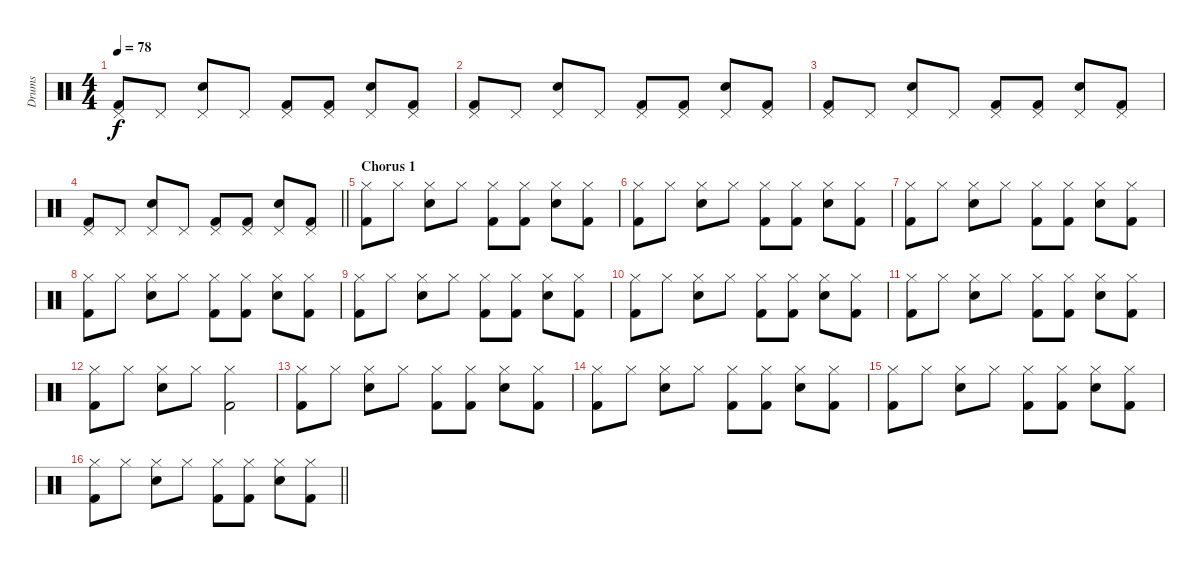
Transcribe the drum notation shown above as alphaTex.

\track ("Drums" "Drums") {instrument percussion}
\staff {score}
\articulation defaults
\ts (4 4)
\tempo 78
\clef neutral
\ks c
("Pedal Hi-Hat (hit)" "Kick (hit) 2").8{dy f} "Pedal Hi-Hat (hit)".8 ("Pedal Hi-Hat (hit)" "Snare (hit) 2").8 "Pedal Hi-Hat (hit)".8 ("Pedal Hi-Hat (hit)" "Kick (hit) 2").8 ("Pedal Hi-Hat (hit)" "Kick (hit) 2").8 ("Pedal Hi-Hat (hit)" "Snare (hit) 2").8 ("Pedal Hi-Hat (hit)" "Kick (hit) 2").8 |
("Pedal Hi-Hat (hit)" "Kick (hit) 2").8 "Pedal Hi-Hat (hit)".8 ("Pedal Hi-Hat (hit)" "Snare (hit) 2").8 "Pedal Hi-Hat (hit)".8 ("Pedal Hi-Hat (hit)" "Kick (hit) 2").8 ("Pedal Hi-Hat (hit)" "Kick (hit) 2").8 ("Pedal Hi-Hat (hit)" "Snare (hit) 2").8 ("Pedal Hi-Hat (hit)" "Kick (hit) 2").8 |
("Pedal Hi-Hat (hit)" "Kick (hit) 2").8 "Pedal Hi-Hat (hit)".8 ("Pedal Hi-Hat (hit)" "Snare (hit) 2").8 "Pedal Hi-Hat (hit)".8 ("Pedal Hi-Hat (hit)" "Kick (hit) 2").8 ("Pedal Hi-Hat (hit)" "Kick (hit) 2").8 ("Pedal Hi-Hat (hit)" "Snare (hit) 2").8 ("Pedal Hi-Hat (hit)" "Kick (hit) 2").8 |
\barLineRight lightlight
("Pedal Hi-Hat (hit)" "Kick (hit) 2").8 "Pedal Hi-Hat (hit)".8 ("Pedal Hi-Hat (hit)" "Snare (hit) 2").8 "Pedal Hi-Hat (hit)".8 ("Pedal Hi-Hat (hit)" "Kick (hit) 2").8 ("Pedal Hi-Hat (hit)" "Kick (hit) 2").8 ("Pedal Hi-Hat (hit)" "Snare (hit) 2").8 ("Pedal Hi-Hat (hit)" "Kick (hit) 2").8 |
\section ("" "Chorus 1")
("Hi-Hat (closed)" "Kick (hit) 2").8 "Hi-Hat (closed)".8 ("Hi-Hat (closed)" "Snare (hit) 2").8 "Hi-Hat (closed)".8 ("Hi-Hat (closed)" "Kick (hit) 2").8 ("Hi-Hat (closed)" "Kick (hit) 2").8 ("Hi-Hat (closed)" "Snare (hit) 2").8 ("Hi-Hat (closed)" "Kick (hit) 2").8 |
("Hi-Hat (closed)" "Kick (hit) 2").8 "Hi-Hat (closed)".8 ("Hi-Hat (closed)" "Snare (hit) 2").8 "Hi-Hat (closed)".8 ("Hi-Hat (closed)" "Kick (hit) 2").8 ("Hi-Hat (closed)" "Kick (hit) 2").8 ("Hi-Hat (closed)" "Snare (hit) 2").8 ("Hi-Hat (closed)" "Kick (hit) 2").8 |
("Hi-Hat (closed)" "Kick (hit) 2").8 "Hi-Hat (closed)".8 ("Hi-Hat (closed)" "Snare (hit) 2").8 "Hi-Hat (closed)".8 ("Hi-Hat (closed)" "Kick (hit) 2").8 ("Hi-Hat (closed)" "Kick (hit) 2").8 ("Hi-Hat (closed)" "Snare (hit) 2").8 ("Hi-Hat (closed)" "Kick (hit) 2").8 |
("Hi-Hat (closed)" "Kick (hit) 2").8 "Hi-Hat (closed)".8 ("Hi-Hat (closed)" "Snare (hit) 2").8 "Hi-Hat (closed)".8 ("Hi-Hat (closed)" "Kick (hit) 2").8 ("Hi-Hat (closed)" "Kick (hit) 2").8 ("Hi-Hat (closed)" "Snare (hit) 2").8 ("Hi-Hat (closed)" "Kick (hit) 2").8 |
("Hi-Hat (closed)" "Kick (hit) 2").8 "Hi-Hat (closed)".8 ("Hi-Hat (closed)" "Snare (hit) 2").8 "Hi-Hat (closed)".8 ("Hi-Hat (closed)" "Kick (hit) 2").8 ("Hi-Hat (closed)" "Kick (hit) 2").8 ("Hi-Hat (closed)" "Snare (hit) 2").8 ("Hi-Hat (closed)" "Kick (hit) 2").8 |
("Hi-Hat (closed)" "Kick (hit) 2").8 "Hi-Hat (closed)".8 ("Hi-Hat (closed)" "Snare (hit) 2").8 "Hi-Hat (closed)".8 ("Hi-Hat (closed)" "Kick (hit) 2").8 ("Hi-Hat (closed)" "Kick (hit) 2").8 ("Hi-Hat (closed)" "Snare (hit) 2").8 ("Hi-Hat (closed)" "Kick (hit) 2").8 |
("Hi-Hat (closed)" "Kick (hit) 2").8 "Hi-Hat (closed)".8 ("Hi-Hat (closed)" "Snare (hit) 2").8 "Hi-Hat (closed)".8 ("Hi-Hat (closed)" "Kick (hit) 2").8 ("Hi-Hat (closed)" "Kick (hit) 2").8 ("Hi-Hat (closed)" "Snare (hit) 2").8 ("Hi-Hat (closed)" "Kick (hit) 2").8 |
("Hi-Hat (closed)" "Kick (hit) 2").8 "Hi-Hat (closed)".8 ("Hi-Hat (closed)" "Snare (hit) 2").8 "Hi-Hat (closed)".8 ("Hi-Hat (closed)" "Kick (hit) 2").2 |
("Hi-Hat (closed)" "Kick (hit) 2").8 "Hi-Hat (closed)".8 ("Hi-Hat (closed)" "Snare (hit) 2").8 "Hi-Hat (closed)".8 ("Hi-Hat (closed)" "Kick (hit) 2").8 ("Hi-Hat (closed)" "Kick (hit) 2").8 ("Hi-Hat (closed)" "Snare (hit) 2").8 ("Hi-Hat (closed)" "Kick (hit) 2").8 |
("Hi-Hat (closed)" "Kick (hit) 2").8 "Hi-Hat (closed)".8 ("Hi-Hat (closed)" "Snare (hit) 2").8 "Hi-Hat (closed)".8 ("Hi-Hat (closed)" "Kick (hit) 2").8 ("Hi-Hat (closed)" "Kick (hit) 2").8 ("Hi-Hat (closed)" "Snare (hit) 2").8 ("Hi-Hat (closed)" "Kick (hit) 2").8 |
("Hi-Hat (closed)" "Kick (hit) 2").8 "Hi-Hat (closed)".8 ("Hi-Hat (closed)" "Snare (hit) 2").8 "Hi-Hat (closed)".8 ("Hi-Hat (closed)" "Kick (hit) 2").8 ("Hi-Hat (closed)" "Kick (hit) 2").8 ("Hi-Hat (closed)" "Snare (hit) 2").8 ("Hi-Hat (closed)" "Kick (hit) 2").8 |
\barLineRight lightlight
("Hi-Hat (closed)" "Kick (hit) 2").8 "Hi-Hat (closed)".8 ("Hi-Hat (closed)" "Snare (hit) 2").8 "Hi-Hat (closed)".8 ("Hi-Hat (closed)" "Kick (hit) 2").8 ("Hi-Hat (closed)" "Kick (hit) 2").8 ("Hi-Hat (closed)" "Snare (hit) 2").8 ("Hi-Hat (closed)" "Kick (hit) 2").8
